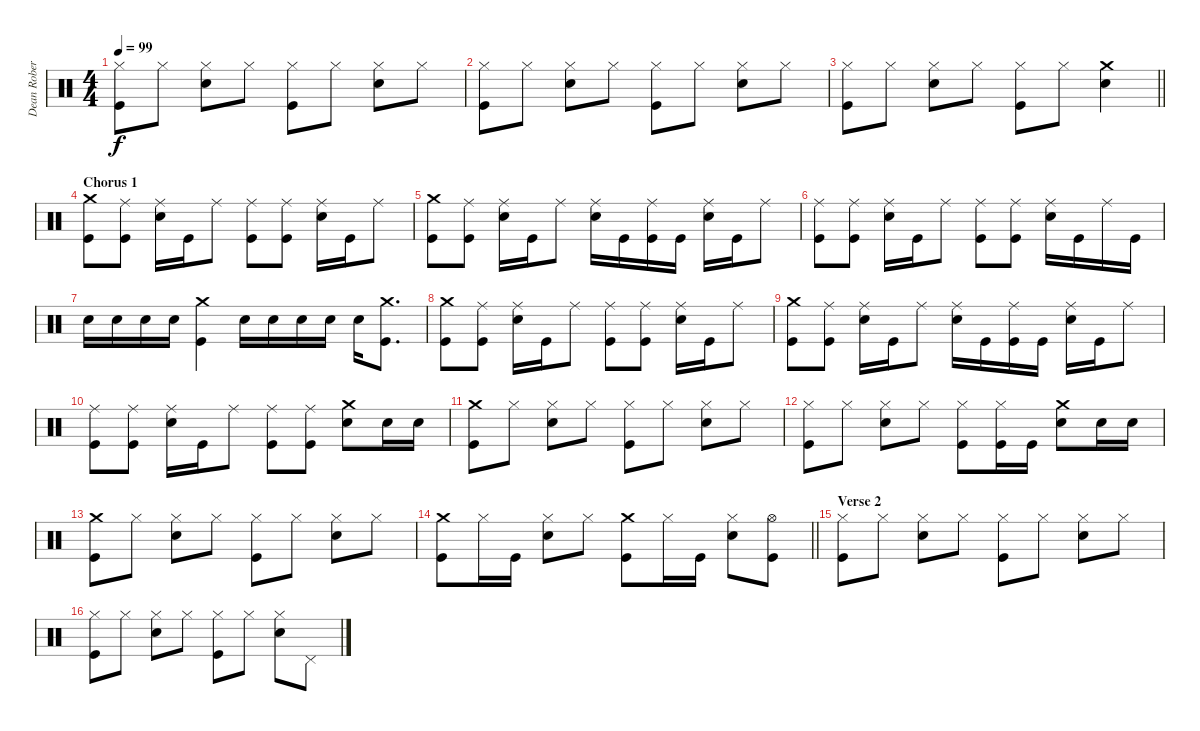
\track ("Dean Roberts" "Dean Rober") {instrument percussion}
\staff {score}
\articulation defaults
\ts (4 4)
\tempo 99
\clef neutral
\ks c
("Hi-Hat (closed)" "Kick (hit)").8{dy f} "Hi-Hat (closed)".8 ("Hi-Hat (closed)" "Electric Snare (hit)").8 "Hi-Hat (closed)".8 ("Hi-Hat (closed)" "Kick (hit)").8 "Hi-Hat (closed)".8 ("Hi-Hat (closed)" "Electric Snare (hit)").8 "Hi-Hat (closed)".8 |
("Hi-Hat (closed)" "Kick (hit)").8 "Hi-Hat (closed)".8 ("Hi-Hat (closed)" "Electric Snare (hit)").8 "Hi-Hat (closed)".8 ("Hi-Hat (closed)" "Kick (hit)").8 "Hi-Hat (closed)".8 ("Hi-Hat (closed)" "Electric Snare (hit)").8 "Hi-Hat (closed)".8 |
\barLineRight lightlight
("Hi-Hat (closed)" "Kick (hit)").8 "Hi-Hat (closed)".8 ("Hi-Hat (closed)" "Electric Snare (hit)").8 "Hi-Hat (closed)".8 ("Hi-Hat (closed)" "Kick (hit)").8 "Hi-Hat (closed)".8 ("Crash medium (hit)" "Electric Snare (hit)").4 |
\section ("" "Chorus 1")
("Crash medium (hit)" "Kick (hit)").8 ("Ride (middle)" "Kick (hit)").8 ("Ride (middle)" "Electric Snare (hit)").16 "Kick (hit)".16 "Ride (middle)".8 ("Ride (middle)" "Kick (hit)").8 ("Ride (middle)" "Kick (hit)").8 ("Ride (middle)" "Electric Snare (hit)").16 "Kick (hit)".16 "Ride (middle)".8 |
("Crash medium (hit)" "Kick (hit)").8 ("Ride (middle)" "Kick (hit)").8 ("Ride (middle)" "Electric Snare (hit)").16 "Kick (hit)".16 "Ride (middle)".8 ("Ride (middle)" "Electric Snare (hit)").16 "Kick (hit)".16 ("Ride (middle)" "Kick (hit)").16 "Kick (hit)".16 ("Ride (middle)" "Electric Snare (hit)").16 "Kick (hit)".16 "Ride (middle)".8 |
("Ride (middle)" "Kick (hit)").8 ("Ride (middle)" "Kick (hit)").8 ("Ride (middle)" "Electric Snare (hit)").16 "Kick (hit)".16 "Ride (middle)".8 ("Ride (middle)" "Kick (hit)").8 ("Ride (middle)" "Kick (hit)").8 ("Ride (middle)" "Electric Snare (hit)").16 "Kick (hit)".16 "Ride (middle)".16 "Kick (hit)".16 |
"Electric Snare (hit)".16 "Electric Snare (hit)".16 "Electric Snare (hit)".16 "Electric Snare (hit)".16 ("Crash medium (hit)" "Kick (hit)").4 "Electric Snare (hit)".16 "Electric Snare (hit)".16 "Electric Snare (hit)".16 "Electric Snare (hit)".16 "Electric Snare (hit)".16 ("Crash medium (hit)" "Kick (hit)").8{d} |
("Crash medium (hit)" "Kick (hit)").8 ("Ride (middle)" "Kick (hit)").8 ("Ride (middle)" "Electric Snare (hit)").16 "Kick (hit)".16 "Ride (middle)".8 ("Ride (middle)" "Kick (hit)").8 ("Ride (middle)" "Kick (hit)").8 ("Ride (middle)" "Electric Snare (hit)").16 "Kick (hit)".16 "Ride (middle)".8 |
("Crash medium (hit)" "Kick (hit)").8 ("Ride (middle)" "Kick (hit)").8 ("Ride (middle)" "Electric Snare (hit)").16 "Kick (hit)".16 "Ride (middle)".8 ("Ride (middle)" "Electric Snare (hit)").16 "Kick (hit)".16 ("Ride (middle)" "Kick (hit)").16 "Kick (hit)".16 ("Ride (middle)" "Electric Snare (hit)").16 "Kick (hit)".16 "Ride (middle)".8 |
("Ride (middle)" "Kick (hit)").8 ("Ride (middle)" "Kick (hit)").8 ("Ride (middle)" "Electric Snare (hit)").16 "Kick (hit)".16 "Ride (middle)".8 ("Ride (middle)" "Kick (hit)").8 ("Ride (middle)" "Kick (hit)").8 ("Crash medium (hit)" "Electric Snare (hit)").8 "Electric Snare (hit)".16 "Electric Snare (hit)".16 |
("Crash medium (hit)" "Kick (hit)").8 "Hi-Hat (closed)".8 ("Hi-Hat (closed)" "Electric Snare (hit)").8 "Hi-Hat (closed)".8 ("Hi-Hat (closed)" "Kick (hit)").8 "Hi-Hat (closed)".8 ("Hi-Hat (closed)" "Electric Snare (hit)").8 "Hi-Hat (closed)".8 |
("Hi-Hat (closed)" "Kick (hit)").8 "Hi-Hat (closed)".8 ("Hi-Hat (closed)" "Electric Snare (hit)").8 "Hi-Hat (closed)".8 ("Hi-Hat (closed)" "Kick (hit)").8 ("Hi-Hat (closed)" "Kick (hit)").16 "Kick (hit)".16 ("Crash medium (hit)" "Electric Snare (hit)").8 "Electric Snare (hit)".16 "Electric Snare (hit)".16 |
("Crash medium (hit)" "Kick (hit)").8 "Hi-Hat (closed)".8 ("Hi-Hat (closed)" "Electric Snare (hit)").8 "Hi-Hat (closed)".8 ("Hi-Hat (closed)" "Kick (hit)").8 "Hi-Hat (closed)".8 ("Hi-Hat (closed)" "Electric Snare (hit)").8 "Hi-Hat (closed)".8 |
\barLineRight lightlight
("Crash medium (hit)" "Kick (hit)").8 "Hi-Hat (closed)".16 "Kick (hit)".16 ("Hi-Hat (closed)" "Electric Snare (hit)").8 "Hi-Hat (closed)".8 ("Crash medium (hit)" "Kick (hit)").8 "Hi-Hat (closed)".16 "Kick (hit)".16 ("Hi-Hat (closed)" "Electric Snare (hit)").8 ("Hi-Hat (open)" "Kick (hit)").8 |
\section ("" "Verse 2")
("Hi-Hat (closed)" "Kick (hit)").8 "Hi-Hat (closed)".8 ("Hi-Hat (closed)" "Electric Snare (hit)").8 "Hi-Hat (closed)".8 ("Hi-Hat (closed)" "Kick (hit)").8 "Hi-Hat (closed)".8 ("Hi-Hat (closed)" "Electric Snare (hit)").8 "Hi-Hat (closed)".8 |
("Hi-Hat (closed)" "Kick (hit)").8 "Hi-Hat (closed)".8 ("Hi-Hat (closed)" "Electric Snare (hit)").8 "Hi-Hat (closed)".8 ("Hi-Hat (closed)" "Kick (hit)").8 "Hi-Hat (closed)".8 ("Hi-Hat (closed)" "Electric Snare (hit)").8 "Pedal Hi-Hat (hit)".8
